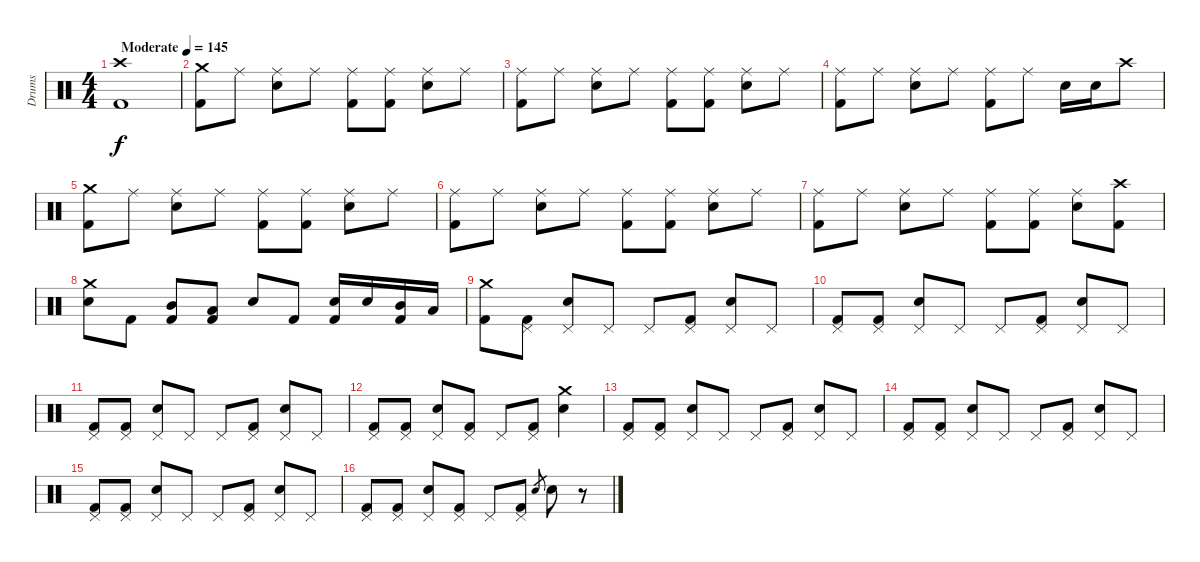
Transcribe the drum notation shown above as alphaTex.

\track ("Drums" "Drums") {instrument percussion}
\staff {score}
\articulation defaults
\ts (4 4)
\tempo (145 "Moderate")
\clef neutral
\ks c
("Crash high (hit)" "Kick (hit) 2").1{dy f} |
("Crash medium (hit)" "Kick (hit) 2").8 "Ride (middle)".8 ("Ride (middle)" "Electric Snare (hit)").8 "Ride (middle)".8 ("Ride (middle)" "Kick (hit) 2").8 ("Ride (middle)" "Kick (hit) 2").8 ("Ride (middle)" "Electric Snare (hit)").8 "Ride (middle)".8 |
("Ride (middle)" "Kick (hit) 2").8 "Ride (middle)".8 ("Ride (middle)" "Electric Snare (hit)").8 "Ride (middle)".8 ("Ride (middle)" "Kick (hit) 2").8 ("Ride (middle)" "Kick (hit) 2").8 ("Ride (middle)" "Electric Snare (hit)").8 "Ride (middle)".8 |
("Ride (middle)" "Kick (hit) 2").8 "Ride (middle)".8 ("Ride (middle)" "Electric Snare (hit)").8 "Ride (middle)".8 ("Ride (middle)" "Kick (hit) 2").8 "Ride (middle)".8 "Electric Snare (hit)".16 "Electric Snare (hit)".16 "Crash high (hit)".8 |
("Crash medium (hit)" "Kick (hit) 2").8 "Ride (middle)".8 ("Ride (middle)" "Electric Snare (hit)").8 "Ride (middle)".8 ("Ride (middle)" "Kick (hit) 2").8 ("Ride (middle)" "Kick (hit) 2").8 ("Ride (middle)" "Electric Snare (hit)").8 "Ride (middle)".8 |
("Ride (middle)" "Kick (hit) 2").8 "Ride (middle)".8 ("Ride (middle)" "Electric Snare (hit)").8 "Ride (middle)".8 ("Ride (middle)" "Kick (hit) 2").8 ("Ride (middle)" "Kick (hit) 2").8 ("Ride (middle)" "Electric Snare (hit)").8 "Ride (middle)".8 |
("Ride (middle)" "Kick (hit) 2").8 "Ride (middle)".8 ("Ride (middle)" "Electric Snare (hit)").8 "Ride (middle)".8 ("Ride (middle)" "Kick (hit) 2").8 ("Ride (middle)" "Kick (hit) 2").8 ("Ride (middle)" "Electric Snare (hit)").8 ("Crash high (hit)" "Kick (hit) 2").8 |
("Crash medium (hit)" "Electric Snare (hit)").8 "Kick (hit) 2".8 ("Mid Tom (hit)" "Kick (hit) 2").8 ("Low Tom (hit)" "Kick (hit) 2").8 "Electric Snare (hit)".8 "Kick (hit) 2".8 ("Electric Snare (hit)" "Kick (hit) 2").16 "Electric Snare (hit)".16 ("Mid Tom (hit)" "Kick (hit) 2").16 "Low Tom (hit)".16 |
("Crash medium (hit)" "Kick (hit) 2").8 ("Pedal Hi-Hat (hit)" "Kick (hit) 2").8 ("Pedal Hi-Hat (hit)" "Electric Snare (hit)").8 "Pedal Hi-Hat (hit)".8 "Pedal Hi-Hat (hit)".8 ("Pedal Hi-Hat (hit)" "Kick (hit) 2").8 ("Pedal Hi-Hat (hit)" "Electric Snare (hit)").8 "Pedal Hi-Hat (hit)".8 |
("Pedal Hi-Hat (hit)" "Kick (hit) 2").8 ("Pedal Hi-Hat (hit)" "Kick (hit) 2").8 ("Pedal Hi-Hat (hit)" "Electric Snare (hit)").8 "Pedal Hi-Hat (hit)".8 "Pedal Hi-Hat (hit)".8 ("Pedal Hi-Hat (hit)" "Kick (hit) 2").8 ("Pedal Hi-Hat (hit)" "Electric Snare (hit)").8 "Pedal Hi-Hat (hit)".8 |
("Pedal Hi-Hat (hit)" "Kick (hit) 2").8 ("Pedal Hi-Hat (hit)" "Kick (hit) 2").8 ("Pedal Hi-Hat (hit)" "Electric Snare (hit)").8 "Pedal Hi-Hat (hit)".8 "Pedal Hi-Hat (hit)".8 ("Pedal Hi-Hat (hit)" "Kick (hit) 2").8 ("Pedal Hi-Hat (hit)" "Electric Snare (hit)").8 "Pedal Hi-Hat (hit)".8 |
("Pedal Hi-Hat (hit)" "Kick (hit) 2").8 ("Pedal Hi-Hat (hit)" "Kick (hit) 2").8 ("Pedal Hi-Hat (hit)" "Electric Snare (hit)").8 ("Pedal Hi-Hat (hit)" "Kick (hit) 2").8 "Pedal Hi-Hat (hit)".8 ("Pedal Hi-Hat (hit)" "Kick (hit) 2").8 ("Crash medium (hit)" "Electric Snare (hit)").4 |
("Pedal Hi-Hat (hit)" "Kick (hit) 2").8 ("Pedal Hi-Hat (hit)" "Kick (hit) 2").8 ("Pedal Hi-Hat (hit)" "Electric Snare (hit)").8 "Pedal Hi-Hat (hit)".8 "Pedal Hi-Hat (hit)".8 ("Pedal Hi-Hat (hit)" "Kick (hit) 2").8 ("Pedal Hi-Hat (hit)" "Electric Snare (hit)").8 "Pedal Hi-Hat (hit)".8 |
("Pedal Hi-Hat (hit)" "Kick (hit) 2").8 ("Pedal Hi-Hat (hit)" "Kick (hit) 2").8 ("Pedal Hi-Hat (hit)" "Electric Snare (hit)").8 "Pedal Hi-Hat (hit)".8 "Pedal Hi-Hat (hit)".8 ("Pedal Hi-Hat (hit)" "Kick (hit) 2").8 ("Pedal Hi-Hat (hit)" "Electric Snare (hit)").8 "Pedal Hi-Hat (hit)".8 |
("Pedal Hi-Hat (hit)" "Kick (hit) 2").8 ("Pedal Hi-Hat (hit)" "Kick (hit) 2").8 ("Pedal Hi-Hat (hit)" "Electric Snare (hit)").8 "Pedal Hi-Hat (hit)".8 "Pedal Hi-Hat (hit)".8 ("Pedal Hi-Hat (hit)" "Kick (hit) 2").8 ("Pedal Hi-Hat (hit)" "Electric Snare (hit)").8 "Pedal Hi-Hat (hit)".8 |
("Pedal Hi-Hat (hit)" "Kick (hit) 2").8 ("Pedal Hi-Hat (hit)" "Kick (hit) 2").8 ("Pedal Hi-Hat (hit)" "Electric Snare (hit)").8 ("Pedal Hi-Hat (hit)" "Kick (hit) 2").8 "Pedal Hi-Hat (hit)".8 ("Pedal Hi-Hat (hit)" "Kick (hit) 2").8 "Electric Snare (hit)".8{gr} "Electric Snare (hit)".8 r.8
